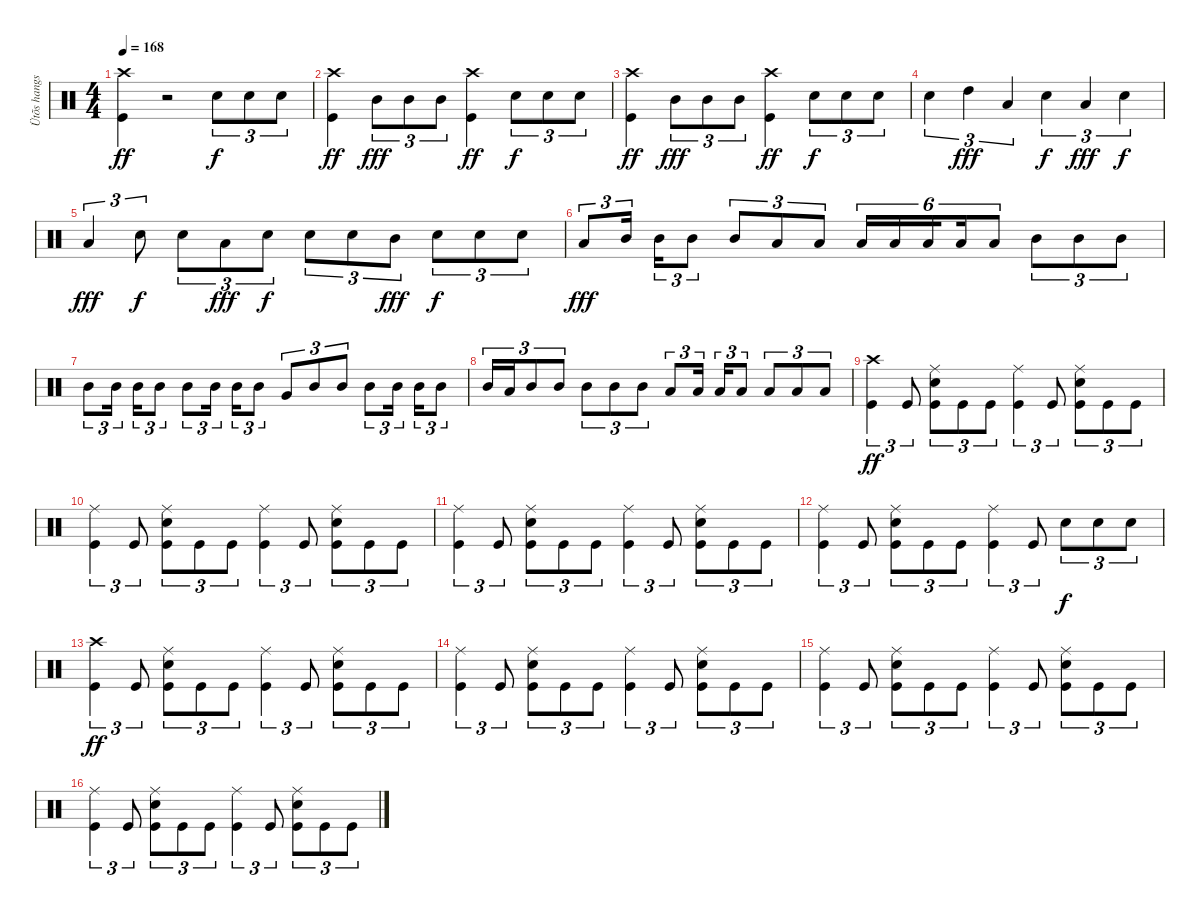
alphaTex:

\track ("Ütõs hangszer" "Ütõs hangs") {instrument percussion}
\staff {score}
\articulation defaults
\ts (4 4)
\tempo 168
\clef neutral
\ks c
("Crash high (hit)" "Kick (hit)").4{dy ff} r.2 "Electric Snare (hit)".8{tu (3 2) dy f} "Electric Snare (hit)".8{tu (3 2)} "Electric Snare (hit)".8{tu (3 2)} |
("Crash high (hit)" "Kick (hit)").4{dy ff} "Mid Tom (hit)".8{tu (3 2) dy fff} "Mid Tom (hit)".8{tu (3 2)} "Mid Tom (hit)".8{tu (3 2)} ("Crash high (hit)" "Kick (hit)").4{dy ff} "Electric Snare (hit)".8{tu (3 2) dy f} "Electric Snare (hit)".8{tu (3 2)} "Electric Snare (hit)".8{tu (3 2)} |
("Crash high (hit)" "Kick (hit)").4{dy ff} "Mid Tom (hit)".8{tu (3 2) dy fff} "Mid Tom (hit)".8{tu (3 2)} "Mid Tom (hit)".8{tu (3 2)} ("Crash high (hit)" "Kick (hit)").4{dy ff} "Electric Snare (hit)".8{tu (3 2) dy f} "Electric Snare (hit)".8{tu (3 2)} "Electric Snare (hit)".8{tu (3 2)} |
"Electric Snare (hit)".4{tu (3 2)} "High Tom (hit)".4{tu (3 2) dy fff} "Low Tom (hit)".4{tu (3 2)} "Electric Snare (hit)".4{tu (3 2) dy f} "Low Tom (hit)".4{tu (3 2) dy fff} "Electric Snare (hit)".4{tu (3 2) dy f} |
"Low Tom (hit)".4{tu (3 2) dy fff} "Electric Snare (hit)".8{tu (3 2) dy f} "Electric Snare (hit)".8{tu (3 2)} "Low Tom (hit)".8{tu (3 2) dy fff} "Electric Snare (hit)".8{tu (3 2) dy f} "Electric Snare (hit)".8{tu (3 2)} "Electric Snare (hit)".8{tu (3 2)} "Mid Tom (hit)".8{tu (3 2) dy fff} "Electric Snare (hit)".8{tu (3 2) dy f} "Electric Snare (hit)".8{tu (3 2)} "Electric Snare (hit)".8{tu (3 2)} |
"Low Tom (hit)".8{tu (3 2) dy fff} "Mid Tom (hit)".16{tu (3 2) beam splitsecondary} "Mid Tom (hit)".16{tu (3 2)} "Mid Tom (hit)".8{tu (3 2)} "Mid Tom (hit)".8{tu (3 2)} "Low Tom (hit)".8{tu (3 2)} "Low Tom (hit)".8{tu (3 2)} "Low Tom (hit)".16{tu (6 4)} "Low Tom (hit)".16{tu (6 4)} "Low Tom (hit)".16{tu (6 4) beam splitsecondary} "Low Tom (hit)".16{tu (6 4)} "Low Tom (hit)".8{tu (6 4)} "Mid Tom (hit)".8{tu (3 2)} "Mid Tom (hit)".8{tu (3 2)} "Mid Tom (hit)".8{tu (3 2)} |
"Mid Tom (hit)".8{tu (3 2)} "Mid Tom (hit)".16{tu (3 2) beam splitsecondary} "Mid Tom (hit)".16{tu (3 2)} "Mid Tom (hit)".8{tu (3 2)} "Mid Tom (hit)".8{tu (3 2)} "Mid Tom (hit)".16{tu (3 2) beam splitsecondary} "Mid Tom (hit)".16{tu (3 2)} "Mid Tom (hit)".8{tu (3 2)} "Very Low Tom (hit)".8{tu (3 2)} "Mid Tom (hit)".8{tu (3 2)} "Mid Tom (hit)".8{tu (3 2)} "Mid Tom (hit)".8{tu (3 2)} "Mid Tom (hit)".16{tu (3 2) beam splitsecondary} "Mid Tom (hit)".16{tu (3 2)} "Mid Tom (hit)".8{tu (3 2)} |
"Mid Tom (hit)".16{tu (3 2)} "Low Tom (hit)".16{tu (3 2)} "Mid Tom (hit)".8{tu (3 2)} "Mid Tom (hit)".8{tu (3 2)} "Mid Tom (hit)".8{tu (3 2)} "Mid Tom (hit)".8{tu (3 2)} "Mid Tom (hit)".8{tu (3 2)} "Low Tom (hit)".8{tu (3 2)} "Low Tom (hit)".16{tu (3 2) beam splitsecondary} "Low Tom (hit)".16{tu (3 2)} "Low Tom (hit)".8{tu (3 2)} "Low Tom (hit)".8{tu (3 2)} "Low Tom (hit)".8{tu (3 2)} "Low Tom (hit)".8{tu (3 2)} |
("Crash high (hit)" "Kick (hit)").4{tu (3 2) dy ff} "Kick (hit)".8{tu (3 2)} ("Ride (middle)" "Electric Snare (hit)" "Kick (hit)").8{tu (3 2)} "Kick (hit)".8{tu (3 2)} "Kick (hit)".8{tu (3 2)} ("Ride (middle)" "Kick (hit)").4{tu (3 2)} "Kick (hit)".8{tu (3 2)} ("Ride (middle)" "Electric Snare (hit)" "Kick (hit)").8{tu (3 2)} "Kick (hit)".8{tu (3 2)} "Kick (hit)".8{tu (3 2)} |
("Ride (middle)" "Kick (hit)").4{tu (3 2)} "Kick (hit)".8{tu (3 2)} ("Ride (middle)" "Electric Snare (hit)" "Kick (hit)").8{tu (3 2)} "Kick (hit)".8{tu (3 2)} "Kick (hit)".8{tu (3 2)} ("Ride (middle)" "Kick (hit)").4{tu (3 2)} "Kick (hit)".8{tu (3 2)} ("Ride (middle)" "Electric Snare (hit)" "Kick (hit)").8{tu (3 2)} "Kick (hit)".8{tu (3 2)} "Kick (hit)".8{tu (3 2)} |
("Ride (middle)" "Kick (hit)").4{tu (3 2)} "Kick (hit)".8{tu (3 2)} ("Ride (middle)" "Electric Snare (hit)" "Kick (hit)").8{tu (3 2)} "Kick (hit)".8{tu (3 2)} "Kick (hit)".8{tu (3 2)} ("Ride (middle)" "Kick (hit)").4{tu (3 2)} "Kick (hit)".8{tu (3 2)} ("Ride (middle)" "Electric Snare (hit)" "Kick (hit)").8{tu (3 2)} "Kick (hit)".8{tu (3 2)} "Kick (hit)".8{tu (3 2)} |
("Ride (middle)" "Kick (hit)").4{tu (3 2)} "Kick (hit)".8{tu (3 2)} ("Ride (middle)" "Electric Snare (hit)" "Kick (hit)").8{tu (3 2)} "Kick (hit)".8{tu (3 2)} "Kick (hit)".8{tu (3 2)} ("Ride (middle)" "Kick (hit)").4{tu (3 2)} "Kick (hit)".8{tu (3 2)} "Electric Snare (hit)".8{tu (3 2) dy f} "Electric Snare (hit)".8{tu (3 2)} "Electric Snare (hit)".8{tu (3 2)} |
("Crash high (hit)" "Kick (hit)").4{tu (3 2) dy ff} "Kick (hit)".8{tu (3 2)} ("Ride (middle)" "Electric Snare (hit)" "Kick (hit)").8{tu (3 2)} "Kick (hit)".8{tu (3 2)} "Kick (hit)".8{tu (3 2)} ("Ride (middle)" "Kick (hit)").4{tu (3 2)} "Kick (hit)".8{tu (3 2)} ("Ride (middle)" "Electric Snare (hit)" "Kick (hit)").8{tu (3 2)} "Kick (hit)".8{tu (3 2)} "Kick (hit)".8{tu (3 2)} |
("Ride (middle)" "Kick (hit)").4{tu (3 2)} "Kick (hit)".8{tu (3 2)} ("Ride (middle)" "Electric Snare (hit)" "Kick (hit)").8{tu (3 2)} "Kick (hit)".8{tu (3 2)} "Kick (hit)".8{tu (3 2)} ("Ride (middle)" "Kick (hit)").4{tu (3 2)} "Kick (hit)".8{tu (3 2)} ("Ride (middle)" "Electric Snare (hit)" "Kick (hit)").8{tu (3 2)} "Kick (hit)".8{tu (3 2)} "Kick (hit)".8{tu (3 2)} |
("Ride (middle)" "Kick (hit)").4{tu (3 2)} "Kick (hit)".8{tu (3 2)} ("Ride (middle)" "Electric Snare (hit)" "Kick (hit)").8{tu (3 2)} "Kick (hit)".8{tu (3 2)} "Kick (hit)".8{tu (3 2)} ("Ride (middle)" "Kick (hit)").4{tu (3 2)} "Kick (hit)".8{tu (3 2)} ("Ride (middle)" "Electric Snare (hit)" "Kick (hit)").8{tu (3 2)} "Kick (hit)".8{tu (3 2)} "Kick (hit)".8{tu (3 2)} |
("Ride (middle)" "Kick (hit)").4{tu (3 2)} "Kick (hit)".8{tu (3 2)} ("Ride (middle)" "Electric Snare (hit)" "Kick (hit)").8{tu (3 2)} "Kick (hit)".8{tu (3 2)} "Kick (hit)".8{tu (3 2)} ("Ride (middle)" "Kick (hit)").4{tu (3 2)} "Kick (hit)".8{tu (3 2)} ("Ride (middle)" "Electric Snare (hit)" "Kick (hit)").8{tu (3 2)} "Kick (hit)".8{tu (3 2)} "Kick (hit)".8{tu (3 2)}
